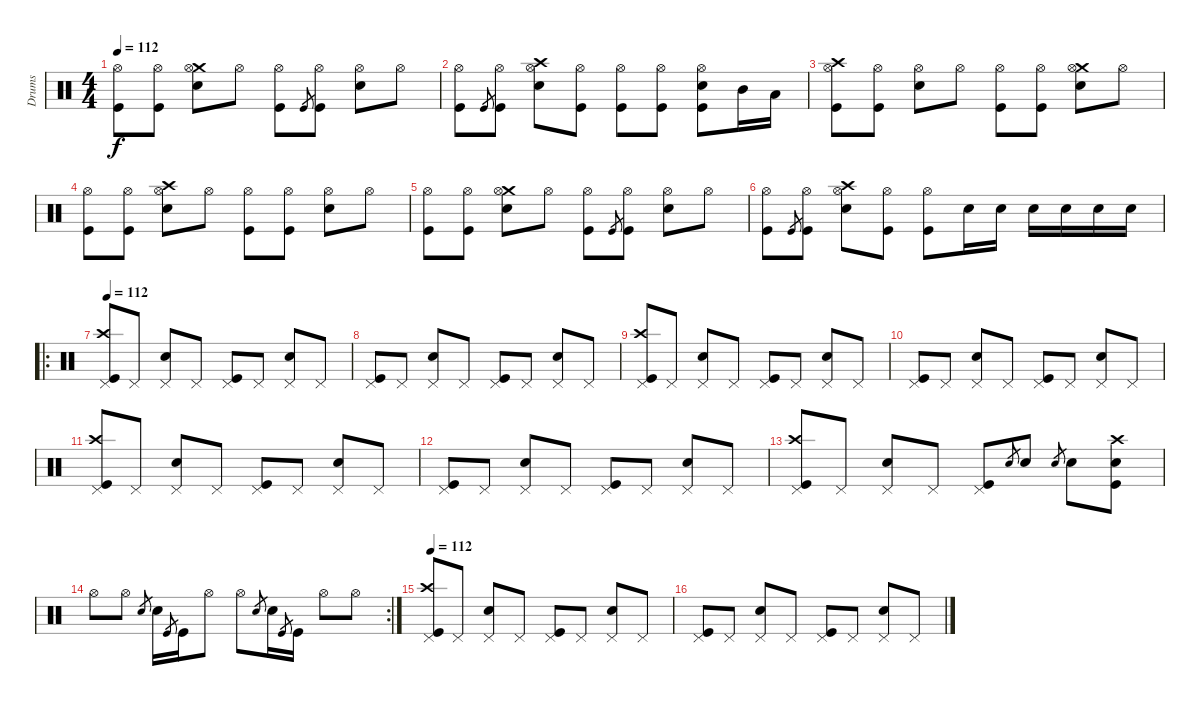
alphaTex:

\track ("Drums" "Drums") {instrument percussion}
\staff {score}
\articulation defaults
\ts (4 4)
\tempo 112
\clef neutral
\ks c
("Hi-Hat (open)" "Kick (hit)").8{dy f} ("Hi-Hat (open)" "Kick (hit)").8 ("Crash medium (hit)" "Hi-Hat (open)" "Snare (hit) 2").8 "Hi-Hat (open)".8 ("Hi-Hat (open)" "Kick (hit)").8 "Kick (hit)".8{gr} ("Hi-Hat (open)" "Kick (hit)").8 ("Hi-Hat (open)" "Snare (hit) 2").8 "Hi-Hat (open)".8 |
("Hi-Hat (open)" "Kick (hit)").8 "Kick (hit)".8{gr} ("Hi-Hat (open)" "Kick (hit)").8 ("Crash high (hit)" "Hi-Hat (open)" "Snare (hit) 2").8 ("Hi-Hat (open)" "Kick (hit)").8 ("Hi-Hat (open)" "Kick (hit)").8 ("Hi-Hat (open)" "Kick (hit)").8 ("Hi-Hat (open)" "Snare (hit) 2" "Kick (hit)").8 "Mid Tom (hit)".16 "Low Tom (hit)".16 |
("Crash high (hit)" "Hi-Hat (open)" "Kick (hit)").8 ("Hi-Hat (open)" "Kick (hit)").8 ("Hi-Hat (open)" "Snare (hit) 2").8 "Hi-Hat (open)".8 ("Hi-Hat (open)" "Kick (hit)").8 ("Hi-Hat (open)" "Kick (hit)").8 ("Crash medium (hit)" "Hi-Hat (open)" "Snare (hit) 2").8 "Hi-Hat (open)".8 |
("Hi-Hat (open)" "Kick (hit)").8 ("Hi-Hat (open)" "Kick (hit)").8 ("Crash high (hit)" "Hi-Hat (open)" "Snare (hit) 2").8 "Hi-Hat (open)".8 ("Hi-Hat (open)" "Kick (hit)").8 ("Hi-Hat (open)" "Kick (hit)").8 ("Hi-Hat (open)" "Snare (hit) 2").8 "Hi-Hat (open)".8 |
("Hi-Hat (open)" "Kick (hit)").8 ("Hi-Hat (open)" "Kick (hit)").8 ("Crash medium (hit)" "Hi-Hat (open)" "Snare (hit) 2").8 "Hi-Hat (open)".8 ("Hi-Hat (open)" "Kick (hit)").8 "Kick (hit)".8{gr} ("Hi-Hat (open)" "Kick (hit)").8 ("Hi-Hat (open)" "Snare (hit) 2").8 "Hi-Hat (open)".8 |
("Hi-Hat (open)" "Kick (hit)").8 "Kick (hit)".8{gr} ("Hi-Hat (open)" "Kick (hit)").8 ("Crash high (hit)" "Hi-Hat (open)" "Snare (hit) 2").8 ("Hi-Hat (open)" "Kick (hit)").8 ("Hi-Hat (open)" "Kick (hit)").8 "Snare (hit) 2".16 "Snare (hit) 2".16 "Snare (hit) 2".16 "Snare (hit) 2".16 "Snare (hit) 2".16 "Snare (hit) 2".16 |
\ro
\tempo 112
("Crash high (hit)" "Pedal Hi-Hat (hit)" "Kick (hit)").8 "Pedal Hi-Hat (hit)".8 ("Pedal Hi-Hat (hit)" "Snare (hit) 2").8 "Pedal Hi-Hat (hit)".8 ("Pedal Hi-Hat (hit)" "Kick (hit)").8 "Pedal Hi-Hat (hit)".8 ("Pedal Hi-Hat (hit)" "Snare (hit) 2").8 "Pedal Hi-Hat (hit)".8 |
("Pedal Hi-Hat (hit)" "Kick (hit)").8 "Pedal Hi-Hat (hit)".8 ("Pedal Hi-Hat (hit)" "Snare (hit) 2").8 "Pedal Hi-Hat (hit)".8 ("Pedal Hi-Hat (hit)" "Kick (hit)").8 "Pedal Hi-Hat (hit)".8 ("Pedal Hi-Hat (hit)" "Snare (hit) 2").8 "Pedal Hi-Hat (hit)".8 |
("Crash high (hit)" "Pedal Hi-Hat (hit)" "Kick (hit)").8 "Pedal Hi-Hat (hit)".8 ("Pedal Hi-Hat (hit)" "Snare (hit) 2").8 "Pedal Hi-Hat (hit)".8 ("Pedal Hi-Hat (hit)" "Kick (hit)").8 "Pedal Hi-Hat (hit)".8 ("Pedal Hi-Hat (hit)" "Snare (hit) 2").8 "Pedal Hi-Hat (hit)".8 |
("Pedal Hi-Hat (hit)" "Kick (hit)").8 "Pedal Hi-Hat (hit)".8 ("Pedal Hi-Hat (hit)" "Snare (hit) 2").8 "Pedal Hi-Hat (hit)".8 ("Pedal Hi-Hat (hit)" "Kick (hit)").8 "Pedal Hi-Hat (hit)".8 ("Pedal Hi-Hat (hit)" "Snare (hit) 2").8 "Pedal Hi-Hat (hit)".8 |
("Crash high (hit)" "Pedal Hi-Hat (hit)" "Kick (hit)").8 "Pedal Hi-Hat (hit)".8 ("Pedal Hi-Hat (hit)" "Snare (hit) 2").8 "Pedal Hi-Hat (hit)".8 ("Pedal Hi-Hat (hit)" "Kick (hit)").8 "Pedal Hi-Hat (hit)".8 ("Pedal Hi-Hat (hit)" "Snare (hit) 2").8 "Pedal Hi-Hat (hit)".8 |
("Pedal Hi-Hat (hit)" "Kick (hit)").8 "Pedal Hi-Hat (hit)".8 ("Pedal Hi-Hat (hit)" "Snare (hit) 2").8 "Pedal Hi-Hat (hit)".8 ("Pedal Hi-Hat (hit)" "Kick (hit)").8 "Pedal Hi-Hat (hit)".8 ("Pedal Hi-Hat (hit)" "Snare (hit) 2").8 "Pedal Hi-Hat (hit)".8 |
("Crash high (hit)" "Pedal Hi-Hat (hit)" "Kick (hit)").8 "Pedal Hi-Hat (hit)".8 ("Pedal Hi-Hat (hit)" "Snare (hit) 2").8 "Pedal Hi-Hat (hit)".8 ("Pedal Hi-Hat (hit)" "Kick (hit)").8 "Snare (hit) 2".8{gr} "Snare (hit) 2".8 "Snare (hit) 2".8{gr} "Snare (hit) 2".8 ("Crash high (hit)" "Snare (hit) 2" "Kick (hit)").8 |
\rc 2 "Hi-Hat (open)".8 "Hi-Hat (open)".8 "Snare (hit) 2".8{gr} "Snare (hit) 2".16 "Kick (hit)".8{gr} "Kick (hit)".16 "Hi-Hat (open)".8 "Hi-Hat (open)".8 "Snare (hit) 2".8{gr} "Snare (hit) 2".16 "Kick (hit)".8{gr} "Kick (hit)".16 "Hi-Hat (open)".8 "Hi-Hat (open)".8
|
\tempo 112
("Crash high (hit)" "Pedal Hi-Hat (hit)" "Kick (hit)").8{volume 16} "Pedal Hi-Hat (hit)".8 ("Pedal Hi-Hat (hit)" "Snare (hit) 2").8 "Pedal Hi-Hat (hit)".8 ("Pedal Hi-Hat (hit)" "Kick (hit)").8 "Pedal Hi-Hat (hit)".8 ("Pedal Hi-Hat (hit)" "Snare (hit) 2").8 "Pedal Hi-Hat (hit)".8 |
("Pedal Hi-Hat (hit)" "Kick (hit)").8 "Pedal Hi-Hat (hit)".8 ("Pedal Hi-Hat (hit)" "Snare (hit) 2").8 "Pedal Hi-Hat (hit)".8 ("Pedal Hi-Hat (hit)" "Kick (hit)").8 "Pedal Hi-Hat (hit)".8 ("Pedal Hi-Hat (hit)" "Snare (hit) 2").8 "Pedal Hi-Hat (hit)".8
